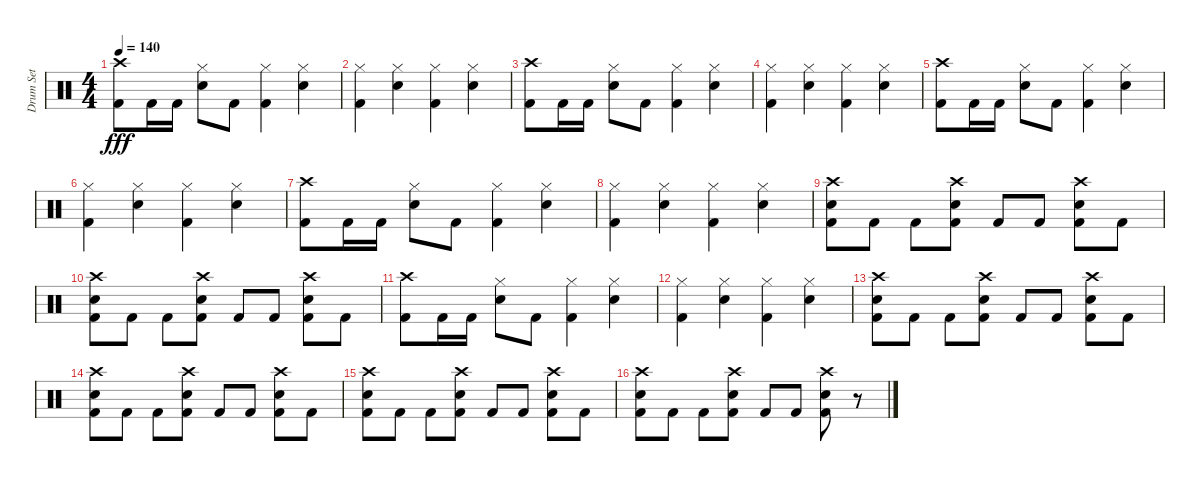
\track ("Drum Set" "Drum Set") {instrument percussion}
\staff {score}
\articulation defaults
\ts (4 4)
\tempo 140
\clef neutral
\ks c
("Crash high (hit)" "Kick (hit) 2").8{dy fff} "Kick (hit) 2".16 "Kick (hit) 2".16 ("Electric Snare (hit)" "Hi-Hat (closed)").8 "Kick (hit) 2".8 ("Kick (hit) 2" "Hi-Hat (closed)").4 ("Electric Snare (hit)" "Hi-Hat (closed)").4 |
("Kick (hit) 2" "Hi-Hat (closed)").4 ("Electric Snare (hit)" "Hi-Hat (closed)").4 ("Kick (hit) 2" "Hi-Hat (closed)").4 ("Electric Snare (hit)" "Hi-Hat (closed)").4 |
("Crash high (hit)" "Kick (hit) 2").8 "Kick (hit) 2".16 "Kick (hit) 2".16 ("Electric Snare (hit)" "Hi-Hat (closed)").8 "Kick (hit) 2".8 ("Kick (hit) 2" "Hi-Hat (closed)").4 ("Electric Snare (hit)" "Hi-Hat (closed)").4 |
("Kick (hit) 2" "Hi-Hat (closed)").4 ("Electric Snare (hit)" "Hi-Hat (closed)").4 ("Kick (hit) 2" "Hi-Hat (closed)").4 ("Electric Snare (hit)" "Hi-Hat (closed)").4 |
("Crash high (hit)" "Kick (hit) 2").8 "Kick (hit) 2".16 "Kick (hit) 2".16 ("Electric Snare (hit)" "Hi-Hat (closed)").8 "Kick (hit) 2".8 ("Kick (hit) 2" "Hi-Hat (closed)").4 ("Electric Snare (hit)" "Hi-Hat (closed)").4 |
("Kick (hit) 2" "Hi-Hat (closed)").4 ("Electric Snare (hit)" "Hi-Hat (closed)").4 ("Kick (hit) 2" "Hi-Hat (closed)").4 ("Electric Snare (hit)" "Hi-Hat (closed)").4 |
("Kick (hit) 2" "Crash high (hit)").8 "Kick (hit) 2".16 "Kick (hit) 2".16 ("Electric Snare (hit)" "Hi-Hat (closed)").8 "Kick (hit) 2".8 ("Kick (hit) 2" "Hi-Hat (closed)").4 ("Electric Snare (hit)" "Hi-Hat (closed)").4 |
("Kick (hit) 2" "Hi-Hat (closed)").4 ("Electric Snare (hit)" "Hi-Hat (closed)").4 ("Kick (hit) 2" "Hi-Hat (closed)").4 ("Electric Snare (hit)" "Hi-Hat (closed)").4 |
("Electric Snare (hit)" "Crash high (hit)" "Kick (hit) 2").8 "Kick (hit) 2".8 "Kick (hit) 2".8 ("Electric Snare (hit)" "Kick (hit) 2" "Crash high (hit)").8 "Kick (hit) 2".8 "Kick (hit) 2".8 ("Electric Snare (hit)" "Kick (hit) 2" "Crash high (hit)").8 "Kick (hit) 2".8 |
("Electric Snare (hit)" "Kick (hit) 2" "Crash high (hit)").8 "Kick (hit) 2".8 "Kick (hit) 2".8 ("Electric Snare (hit)" "Kick (hit) 2" "Crash high (hit)").8 "Kick (hit) 2".8 "Kick (hit) 2".8 ("Electric Snare (hit)" "Kick (hit) 2" "Crash high (hit)").8 "Kick (hit) 2".8 |
("Kick (hit) 2" "Crash high (hit)").8 "Kick (hit) 2".16 "Kick (hit) 2".16 ("Electric Snare (hit)" "Hi-Hat (closed)").8 "Kick (hit) 2".8 ("Kick (hit) 2" "Hi-Hat (closed)").4 ("Electric Snare (hit)" "Hi-Hat (closed)").4 |
("Kick (hit) 2" "Hi-Hat (closed)").4 ("Electric Snare (hit)" "Hi-Hat (closed)").4 ("Kick (hit) 2" "Hi-Hat (closed)").4 ("Hi-Hat (closed)" "Electric Snare (hit)").4 |
("Electric Snare (hit)" "Crash high (hit)" "Kick (hit) 2").8 "Kick (hit) 2".8 "Kick (hit) 2".8 ("Electric Snare (hit)" "Crash high (hit)" "Kick (hit) 2").8 "Kick (hit) 2".8 "Kick (hit) 2".8 ("Electric Snare (hit)" "Kick (hit) 2" "Crash high (hit)").8 "Kick (hit) 2".8 |
("Electric Snare (hit)" "Crash high (hit)" "Kick (hit) 2").8 "Kick (hit) 2".8 "Kick (hit) 2".8 ("Electric Snare (hit)" "Kick (hit) 2" "Crash high (hit)").8 "Kick (hit) 2".8 "Kick (hit) 2".8 ("Electric Snare (hit)" "Kick (hit) 2" "Crash high (hit)").8 "Kick (hit) 2".8 |
("Electric Snare (hit)" "Kick (hit) 2" "Crash high (hit)").8 "Kick (hit) 2".8 "Kick (hit) 2".8 ("Electric Snare (hit)" "Kick (hit) 2" "Crash high (hit)").8 "Kick (hit) 2".8 "Kick (hit) 2".8 ("Electric Snare (hit)" "Kick (hit) 2" "Crash high (hit)").8 "Kick (hit) 2".8 |
("Electric Snare (hit)" "Kick (hit) 2" "Crash high (hit)").8 "Kick (hit) 2".8 "Kick (hit) 2".8 ("Electric Snare (hit)" "Kick (hit) 2" "Crash high (hit)").8 "Kick (hit) 2".8 "Kick (hit) 2".8 ("Electric Snare (hit)" "Kick (hit) 2" "Crash high (hit)").8 r.8
